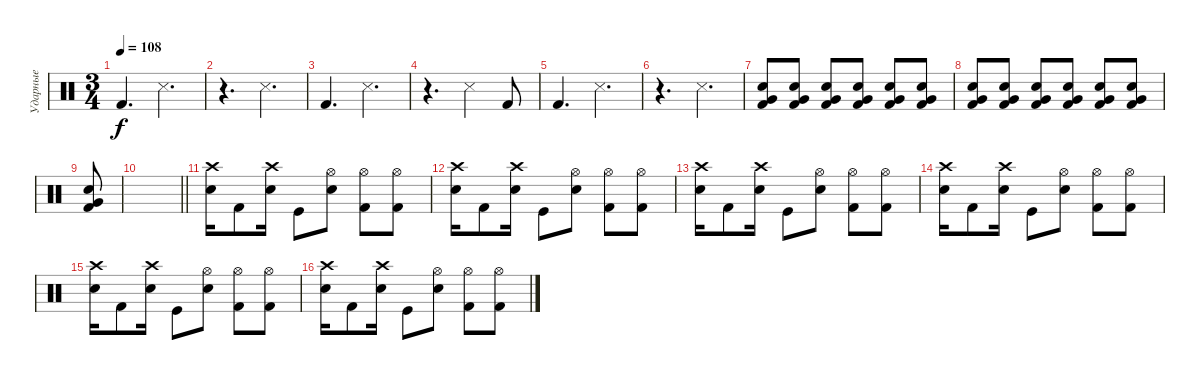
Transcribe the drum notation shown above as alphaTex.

\track ("Ударные" "Ударные") {instrument percussion}
\staff {score}
\articulation defaults
\ts (3 4)
\tempo 108
\clef neutral
\ks c "Kick (hit) 2".4{d dy f} "Snare (side stick) 3".4{d}
|
r.4{d} "Snare (side stick) 3".4{d} |
"Kick (hit) 2".4{d} "Snare (side stick) 3".4{d} |
r.4{d} "Snare (side stick) 3".4 "Kick (hit) 2".8 |
"Kick (hit) 2".4{d} "Snare (side stick) 3".4{d} |
r.4{d} "Snare (side stick) 3".4{d} |
("Kick (hit) 2" "Very Low Tom (hit)" "Snare (hit) 2").8 ("Kick (hit) 2" "Very Low Tom (hit)" "Snare (hit) 2").8 ("Kick (hit) 2" "Very Low Tom (hit)" "Snare (hit) 2").8 ("Kick (hit) 2" "Very Low Tom (hit)" "Snare (hit) 2").8 ("Kick (hit) 2" "Very Low Tom (hit)" "Snare (hit) 2").8 ("Kick (hit) 2" "Very Low Tom (hit)" "Snare (hit) 2").8 |
("Kick (hit) 2" "Very Low Tom (hit)" "Snare (hit) 2").8 ("Kick (hit) 2" "Very Low Tom (hit)" "Snare (hit) 2").8 ("Kick (hit) 2" "Very Low Tom (hit)" "Snare (hit) 2").8 ("Kick (hit) 2" "Very Low Tom (hit)" "Snare (hit) 2").8 ("Kick (hit) 2" "Very Low Tom (hit)" "Snare (hit) 2").8 ("Kick (hit) 2" "Very Low Tom (hit)" "Snare (hit) 2").8 |
("Kick (hit) 2" "Very Low Tom (hit)" "Snare (hit) 2").8 |
\barLineRight lightlight
|
("Snare (hit) 2" "Crash high (hit)").16 "Kick (hit) 2".8 ("Snare (hit) 2" "Crash high (hit)").16 "Kick (hit)".8 ("Snare (hit) 2" "Hi-Hat (open)").8 ("Kick (hit) 2" "Hi-Hat (open)").8 ("Kick (hit) 2" "Hi-Hat (open)").8 |
("Snare (hit) 2" "Crash high (hit)").16 "Kick (hit) 2".8 ("Snare (hit) 2" "Crash high (hit)").16 "Kick (hit)".8 ("Snare (hit) 2" "Hi-Hat (open)").8 ("Kick (hit) 2" "Hi-Hat (open)").8 ("Kick (hit) 2" "Hi-Hat (open)").8 |
("Snare (hit) 2" "Crash high (hit)").16 "Kick (hit) 2".8 ("Snare (hit) 2" "Crash high (hit)").16 "Kick (hit)".8 ("Snare (hit) 2" "Hi-Hat (open)").8 ("Kick (hit) 2" "Hi-Hat (open)").8 ("Kick (hit) 2" "Hi-Hat (open)").8 |
("Snare (hit) 2" "Crash high (hit)").16 "Kick (hit) 2".8 ("Snare (hit) 2" "Crash high (hit)").16 "Kick (hit)".8 ("Snare (hit) 2" "Hi-Hat (open)").8 ("Kick (hit) 2" "Hi-Hat (open)").8 ("Kick (hit) 2" "Hi-Hat (open)").8 |
("Snare (hit) 2" "Crash high (hit)").16 "Kick (hit) 2".8 ("Snare (hit) 2" "Crash high (hit)").16 "Kick (hit)".8 ("Snare (hit) 2" "Hi-Hat (open)").8 ("Kick (hit) 2" "Hi-Hat (open)").8 ("Kick (hit) 2" "Hi-Hat (open)").8 |
("Snare (hit) 2" "Crash high (hit)").16 "Kick (hit) 2".8 ("Snare (hit) 2" "Crash high (hit)").16 "Kick (hit)".8 ("Snare (hit) 2" "Hi-Hat (open)").8 ("Kick (hit) 2" "Hi-Hat (open)").8 ("Kick (hit) 2" "Hi-Hat (open)").8
